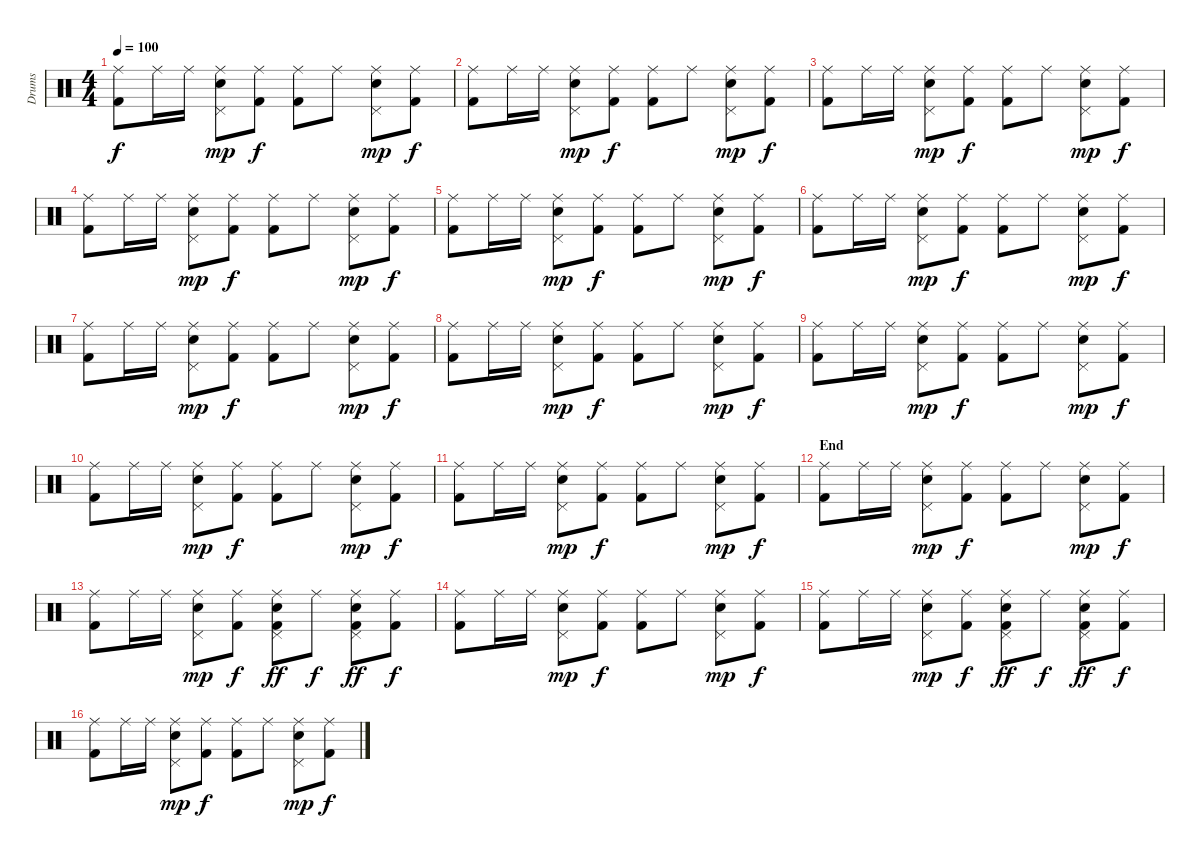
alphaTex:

\track ("Drums" "Drums") {instrument percussion}
\staff {score}
\articulation defaults
\ts (4 4)
\tempo 100
\clef neutral
\ks c
("Ride (middle)" "Kick (hit) 2").8{dy f} "Ride (middle)".16 "Ride (middle)".16 ("Ride (middle)" "Pedal Hi-Hat (hit)" "Electric Snare (hit)").8{dy mp} ("Ride (middle)" "Kick (hit) 2").8{dy f} ("Ride (middle)" "Kick (hit) 2").8 "Ride (middle)".8 ("Ride (middle)" "Pedal Hi-Hat (hit)" "Electric Snare (hit)").8{dy mp} ("Ride (middle)" "Kick (hit) 2").8{dy f} |
("Ride (middle)" "Kick (hit) 2").8 "Ride (middle)".16 "Ride (middle)".16 ("Ride (middle)" "Pedal Hi-Hat (hit)" "Electric Snare (hit)").8{dy mp} ("Ride (middle)" "Kick (hit) 2").8{dy f} ("Ride (middle)" "Kick (hit) 2").8 "Ride (middle)".8 ("Ride (middle)" "Pedal Hi-Hat (hit)" "Electric Snare (hit)").8{dy mp} ("Ride (middle)" "Kick (hit) 2").8{dy f} |
("Ride (middle)" "Kick (hit) 2").8 "Ride (middle)".16 "Ride (middle)".16 ("Ride (middle)" "Pedal Hi-Hat (hit)" "Electric Snare (hit)").8{dy mp} ("Ride (middle)" "Kick (hit) 2").8{dy f} ("Ride (middle)" "Kick (hit) 2").8 "Ride (middle)".8 ("Ride (middle)" "Pedal Hi-Hat (hit)" "Electric Snare (hit)").8{dy mp} ("Ride (middle)" "Kick (hit) 2").8{dy f} |
("Ride (middle)" "Kick (hit) 2").8 "Ride (middle)".16 "Ride (middle)".16 ("Ride (middle)" "Pedal Hi-Hat (hit)" "Electric Snare (hit)").8{dy mp} ("Ride (middle)" "Kick (hit) 2").8{dy f} ("Ride (middle)" "Kick (hit) 2").8 "Ride (middle)".8 ("Ride (middle)" "Pedal Hi-Hat (hit)" "Electric Snare (hit)").8{dy mp} ("Ride (middle)" "Kick (hit) 2").8{dy f} |
("Ride (middle)" "Kick (hit) 2").8 "Ride (middle)".16 "Ride (middle)".16 ("Ride (middle)" "Pedal Hi-Hat (hit)" "Electric Snare (hit)").8{dy mp} ("Ride (middle)" "Kick (hit) 2").8{dy f} ("Ride (middle)" "Kick (hit) 2").8 "Ride (middle)".8 ("Ride (middle)" "Pedal Hi-Hat (hit)" "Electric Snare (hit)").8{dy mp} ("Ride (middle)" "Kick (hit) 2").8{dy f} |
("Ride (middle)" "Kick (hit) 2").8 "Ride (middle)".16 "Ride (middle)".16 ("Ride (middle)" "Pedal Hi-Hat (hit)" "Electric Snare (hit)").8{dy mp} ("Ride (middle)" "Kick (hit) 2").8{dy f} ("Ride (middle)" "Kick (hit) 2").8 "Ride (middle)".8 ("Ride (middle)" "Pedal Hi-Hat (hit)" "Electric Snare (hit)").8{dy mp} ("Ride (middle)" "Kick (hit) 2").8{dy f} |
("Ride (middle)" "Kick (hit) 2").8 "Ride (middle)".16 "Ride (middle)".16 ("Ride (middle)" "Pedal Hi-Hat (hit)" "Electric Snare (hit)").8{dy mp} ("Ride (middle)" "Kick (hit) 2").8{dy f} ("Ride (middle)" "Kick (hit) 2").8 "Ride (middle)".8 ("Ride (middle)" "Pedal Hi-Hat (hit)" "Electric Snare (hit)").8{dy mp} ("Ride (middle)" "Kick (hit) 2").8{dy f} |
("Ride (middle)" "Kick (hit) 2").8 "Ride (middle)".16 "Ride (middle)".16 ("Ride (middle)" "Pedal Hi-Hat (hit)" "Electric Snare (hit)").8{dy mp} ("Ride (middle)" "Kick (hit) 2").8{dy f} ("Ride (middle)" "Kick (hit) 2").8 "Ride (middle)".8 ("Ride (middle)" "Pedal Hi-Hat (hit)" "Electric Snare (hit)").8{dy mp} ("Ride (middle)" "Kick (hit) 2").8{dy f} |
("Ride (middle)" "Kick (hit) 2").8 "Ride (middle)".16 "Ride (middle)".16 ("Ride (middle)" "Pedal Hi-Hat (hit)" "Electric Snare (hit)").8{dy mp} ("Ride (middle)" "Kick (hit) 2").8{dy f} ("Ride (middle)" "Kick (hit) 2").8 "Ride (middle)".8 ("Ride (middle)" "Pedal Hi-Hat (hit)" "Electric Snare (hit)").8{dy mp} ("Ride (middle)" "Kick (hit) 2").8{dy f} |
("Ride (middle)" "Kick (hit) 2").8 "Ride (middle)".16 "Ride (middle)".16 ("Ride (middle)" "Pedal Hi-Hat (hit)" "Electric Snare (hit)").8{dy mp} ("Ride (middle)" "Kick (hit) 2").8{dy f} ("Ride (middle)" "Kick (hit) 2").8 "Ride (middle)".8 ("Ride (middle)" "Pedal Hi-Hat (hit)" "Electric Snare (hit)").8{dy mp} ("Ride (middle)" "Kick (hit) 2").8{dy f} |
("Ride (middle)" "Kick (hit) 2").8 "Ride (middle)".16 "Ride (middle)".16 ("Ride (middle)" "Pedal Hi-Hat (hit)" "Electric Snare (hit)").8{dy mp} ("Ride (middle)" "Kick (hit) 2").8{dy f} ("Ride (middle)" "Kick (hit) 2").8 "Ride (middle)".8 ("Ride (middle)" "Pedal Hi-Hat (hit)" "Electric Snare (hit)").8{dy mp} ("Ride (middle)" "Kick (hit) 2").8{dy f} |
\section ("" "End")
("Ride (middle)" "Kick (hit) 2").8 "Ride (middle)".16 "Ride (middle)".16 ("Ride (middle)" "Pedal Hi-Hat (hit)" "Electric Snare (hit)").8{dy mp} ("Ride (middle)" "Kick (hit) 2").8{dy f} ("Ride (middle)" "Kick (hit) 2").8 "Ride (middle)".8 ("Ride (middle)" "Pedal Hi-Hat (hit)" "Electric Snare (hit)").8{dy mp} ("Ride (middle)" "Kick (hit) 2").8{dy f} |
("Ride (middle)" "Kick (hit) 2").8 "Ride (middle)".16 "Ride (middle)".16 ("Ride (middle)" "Pedal Hi-Hat (hit)" "Electric Snare (hit)").8{dy mp} ("Ride (middle)" "Kick (hit) 2").8{dy f} ("Ride (middle)" "Pedal Hi-Hat (hit)" "Electric Snare (hit)" "Kick (hit) 2").8{dy ff} "Ride (middle)".8{dy f} ("Ride (middle)" "Pedal Hi-Hat (hit)" "Electric Snare (hit)" "Kick (hit) 2").8{dy ff} ("Ride (middle)" "Kick (hit) 2").8{dy f} |
("Ride (middle)" "Kick (hit) 2").8 "Ride (middle)".16 "Ride (middle)".16 ("Ride (middle)" "Pedal Hi-Hat (hit)" "Electric Snare (hit)").8{dy mp} ("Ride (middle)" "Kick (hit) 2").8{dy f} ("Ride (middle)" "Kick (hit) 2").8 "Ride (middle)".8 ("Ride (middle)" "Pedal Hi-Hat (hit)" "Electric Snare (hit)").8{dy mp} ("Ride (middle)" "Kick (hit) 2").8{dy f} |
("Ride (middle)" "Kick (hit) 2").8 "Ride (middle)".16 "Ride (middle)".16 ("Ride (middle)" "Pedal Hi-Hat (hit)" "Electric Snare (hit)").8{dy mp} ("Ride (middle)" "Kick (hit) 2").8{dy f} ("Ride (middle)" "Pedal Hi-Hat (hit)" "Electric Snare (hit)" "Kick (hit) 2").8{dy ff} "Ride (middle)".8{dy f} ("Ride (middle)" "Pedal Hi-Hat (hit)" "Electric Snare (hit)" "Kick (hit) 2").8{dy ff} ("Ride (middle)" "Kick (hit) 2").8{dy f} |
("Ride (middle)" "Kick (hit) 2").8 "Ride (middle)".16 "Ride (middle)".16 ("Ride (middle)" "Pedal Hi-Hat (hit)" "Electric Snare (hit)").8{dy mp} ("Ride (middle)" "Kick (hit) 2").8{dy f} ("Ride (middle)" "Kick (hit) 2").8 "Ride (middle)".8 ("Ride (middle)" "Pedal Hi-Hat (hit)" "Electric Snare (hit)").8{dy mp} ("Ride (middle)" "Kick (hit) 2").8{dy f}
